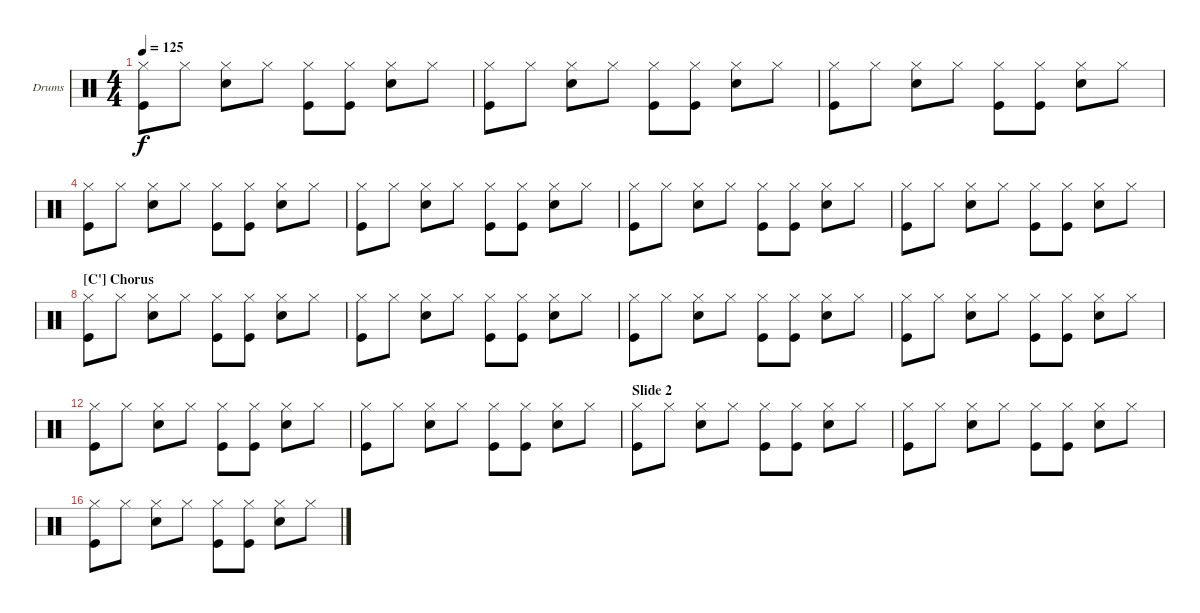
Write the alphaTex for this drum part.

\bracketExtendMode nobrackets
\firstSystemTrackNameOrientation horizontal
\otherSystemsTrackNameOrientation horizontal
\defaultBarNumberDisplay FirstOfSystem
\track ("Drumkit" "Drums") {instrument percussion}
\staff {score}
\articulation defaults
\ts (4 4)
\tempo 125
\clef neutral
\ks c
("Hi-Hat (closed)" "Kick (hit)").8{dy f} "Hi-Hat (closed)".8 ("Hi-Hat (closed)" "Snare (hit) 2").8 "Hi-Hat (closed)".8 ("Hi-Hat (closed)" "Kick (hit)").8 ("Hi-Hat (closed)" "Kick (hit)").8 ("Hi-Hat (closed)" "Snare (hit) 2").8 "Hi-Hat (closed)".8 |
("Hi-Hat (closed)" "Kick (hit)").8 "Hi-Hat (closed)".8 ("Hi-Hat (closed)" "Snare (hit) 2").8 "Hi-Hat (closed)".8 ("Hi-Hat (closed)" "Kick (hit)").8 ("Hi-Hat (closed)" "Kick (hit)").8 ("Hi-Hat (closed)" "Snare (hit) 2").8 "Hi-Hat (closed)".8 |
("Hi-Hat (closed)" "Kick (hit)").8 "Hi-Hat (closed)".8 ("Hi-Hat (closed)" "Snare (hit) 2").8 "Hi-Hat (closed)".8 ("Hi-Hat (closed)" "Kick (hit)").8 ("Hi-Hat (closed)" "Kick (hit)").8 ("Hi-Hat (closed)" "Snare (hit) 2").8 "Hi-Hat (closed)".8 |
("Hi-Hat (closed)" "Kick (hit)").8 "Hi-Hat (closed)".8 ("Hi-Hat (closed)" "Snare (hit) 2").8 "Hi-Hat (closed)".8 ("Hi-Hat (closed)" "Kick (hit)").8 ("Hi-Hat (closed)" "Kick (hit)").8 ("Hi-Hat (closed)" "Snare (hit) 2").8 "Hi-Hat (closed)".8 |
("Hi-Hat (closed)" "Kick (hit)").8 "Hi-Hat (closed)".8 ("Hi-Hat (closed)" "Snare (hit) 2").8 "Hi-Hat (closed)".8 ("Hi-Hat (closed)" "Kick (hit)").8 ("Hi-Hat (closed)" "Kick (hit)").8 ("Hi-Hat (closed)" "Snare (hit) 2").8 "Hi-Hat (closed)".8 |
("Hi-Hat (closed)" "Kick (hit)").8 "Hi-Hat (closed)".8 ("Hi-Hat (closed)" "Snare (hit) 2").8 "Hi-Hat (closed)".8 ("Hi-Hat (closed)" "Kick (hit)").8 ("Hi-Hat (closed)" "Kick (hit)").8 ("Hi-Hat (closed)" "Snare (hit) 2").8 "Hi-Hat (closed)".8 |
("Hi-Hat (closed)" "Kick (hit)").8 "Hi-Hat (closed)".8 ("Hi-Hat (closed)" "Snare (hit) 2").8 "Hi-Hat (closed)".8 ("Hi-Hat (closed)" "Kick (hit)").8 ("Hi-Hat (closed)" "Kick (hit)").8 ("Hi-Hat (closed)" "Snare (hit) 2").8 "Hi-Hat (closed)".8 |
\section ("C'" "Chorus")
("Hi-Hat (closed)" "Kick (hit)").8 "Hi-Hat (closed)".8 ("Hi-Hat (closed)" "Snare (hit) 2").8 "Hi-Hat (closed)".8 ("Hi-Hat (closed)" "Kick (hit)").8 ("Hi-Hat (closed)" "Kick (hit)").8 ("Hi-Hat (closed)" "Snare (hit) 2").8 "Hi-Hat (closed)".8 |
("Hi-Hat (closed)" "Kick (hit)").8 "Hi-Hat (closed)".8 ("Hi-Hat (closed)" "Snare (hit) 2").8 "Hi-Hat (closed)".8 ("Hi-Hat (closed)" "Kick (hit)").8 ("Hi-Hat (closed)" "Kick (hit)").8 ("Hi-Hat (closed)" "Snare (hit) 2").8 "Hi-Hat (closed)".8 |
("Hi-Hat (closed)" "Kick (hit)").8 "Hi-Hat (closed)".8 ("Hi-Hat (closed)" "Snare (hit) 2").8 "Hi-Hat (closed)".8 ("Hi-Hat (closed)" "Kick (hit)").8 ("Hi-Hat (closed)" "Kick (hit)").8 ("Hi-Hat (closed)" "Snare (hit) 2").8 "Hi-Hat (closed)".8 |
("Hi-Hat (closed)" "Kick (hit)").8 "Hi-Hat (closed)".8 ("Hi-Hat (closed)" "Snare (hit) 2").8 "Hi-Hat (closed)".8 ("Hi-Hat (closed)" "Kick (hit)").8 ("Hi-Hat (closed)" "Kick (hit)").8 ("Hi-Hat (closed)" "Snare (hit) 2").8 "Hi-Hat (closed)".8 |
("Hi-Hat (closed)" "Kick (hit)").8 "Hi-Hat (closed)".8 ("Hi-Hat (closed)" "Snare (hit) 2").8 "Hi-Hat (closed)".8 ("Hi-Hat (closed)" "Kick (hit)").8 ("Hi-Hat (closed)" "Kick (hit)").8 ("Hi-Hat (closed)" "Snare (hit) 2").8 "Hi-Hat (closed)".8 |
("Hi-Hat (closed)" "Kick (hit)").8 "Hi-Hat (closed)".8 ("Hi-Hat (closed)" "Snare (hit) 2").8 "Hi-Hat (closed)".8 ("Hi-Hat (closed)" "Kick (hit)").8 ("Hi-Hat (closed)" "Kick (hit)").8 ("Hi-Hat (closed)" "Snare (hit) 2").8 "Hi-Hat (closed)".8 |
\section ("" "Slide 2")
("Hi-Hat (closed)" "Kick (hit)").8 "Hi-Hat (closed)".8 ("Hi-Hat (closed)" "Snare (hit) 2").8 "Hi-Hat (closed)".8 ("Hi-Hat (closed)" "Kick (hit)").8 ("Hi-Hat (closed)" "Kick (hit)").8 ("Hi-Hat (closed)" "Snare (hit) 2").8 "Hi-Hat (closed)".8 |
("Hi-Hat (closed)" "Kick (hit)").8 "Hi-Hat (closed)".8 ("Hi-Hat (closed)" "Snare (hit) 2").8 "Hi-Hat (closed)".8 ("Hi-Hat (closed)" "Kick (hit)").8 ("Hi-Hat (closed)" "Kick (hit)").8 ("Hi-Hat (closed)" "Snare (hit) 2").8 "Hi-Hat (closed)".8 |
("Hi-Hat (closed)" "Kick (hit)").8 "Hi-Hat (closed)".8 ("Hi-Hat (closed)" "Snare (hit) 2").8 "Hi-Hat (closed)".8 ("Hi-Hat (closed)" "Kick (hit)").8 ("Hi-Hat (closed)" "Kick (hit)").8 ("Hi-Hat (closed)" "Snare (hit) 2").8 "Hi-Hat (closed)".8
